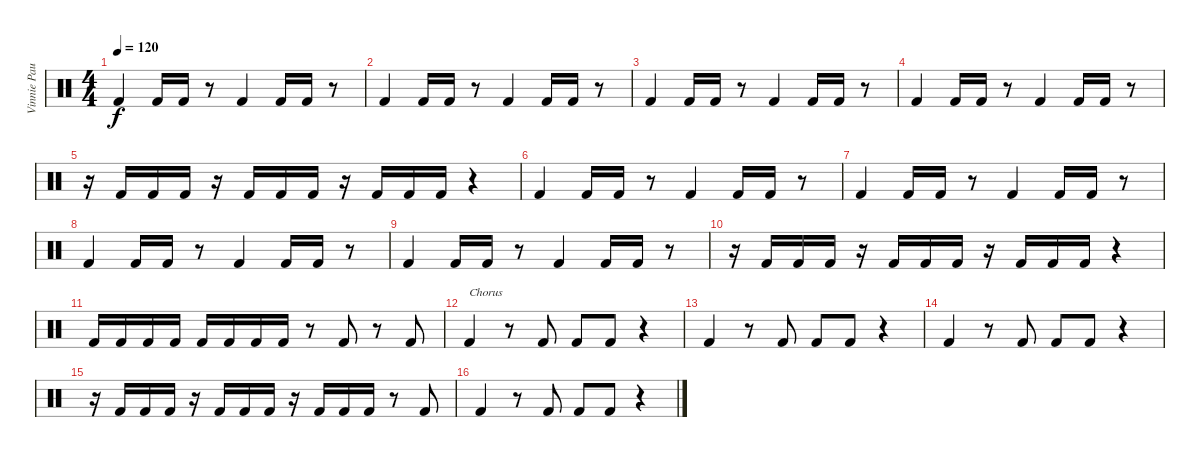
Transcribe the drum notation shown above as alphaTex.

\track ("Vinnie Paul bass drum" "Vinnie Pau") {instrument percussion}
\staff {score}
\articulation defaults
\ts (4 4)
\tempo 120
\clef neutral
\ks c "Kick (hit) 2".4{dy f} "Kick (hit) 2".16 "Kick (hit) 2".16
r.8 "Kick (hit) 2".4 "Kick (hit) 2".16 "Kick (hit) 2".16 r.8 |
"Kick (hit) 2".4 "Kick (hit) 2".16 "Kick (hit) 2".16 r.8 "Kick (hit) 2".4 "Kick (hit) 2".16 "Kick (hit) 2".16 r.8 |
"Kick (hit) 2".4 "Kick (hit) 2".16 "Kick (hit) 2".16 r.8 "Kick (hit) 2".4 "Kick (hit) 2".16 "Kick (hit) 2".16 r.8 |
"Kick (hit) 2".4 "Kick (hit) 2".16 "Kick (hit) 2".16 r.8 "Kick (hit) 2".4 "Kick (hit) 2".16 "Kick (hit) 2".16 r.8 |
r.16 "Kick (hit) 2".16 "Kick (hit) 2".16 "Kick (hit) 2".16 r.16 "Kick (hit) 2".16 "Kick (hit) 2".16 "Kick (hit) 2".16 r.16 "Kick (hit) 2".16 "Kick (hit) 2".16 "Kick (hit) 2".16 r.4 |
"Kick (hit) 2".4 "Kick (hit) 2".16 "Kick (hit) 2".16 r.8 "Kick (hit) 2".4 "Kick (hit) 2".16 "Kick (hit) 2".16 r.8 |
"Kick (hit) 2".4 "Kick (hit) 2".16 "Kick (hit) 2".16 r.8 "Kick (hit) 2".4 "Kick (hit) 2".16 "Kick (hit) 2".16 r.8 |
"Kick (hit) 2".4 "Kick (hit) 2".16 "Kick (hit) 2".16 r.8 "Kick (hit) 2".4 "Kick (hit) 2".16 "Kick (hit) 2".16 r.8 |
"Kick (hit) 2".4 "Kick (hit) 2".16 "Kick (hit) 2".16 r.8 "Kick (hit) 2".4 "Kick (hit) 2".16 "Kick (hit) 2".16 r.8 |
r.16 "Kick (hit) 2".16 "Kick (hit) 2".16 "Kick (hit) 2".16 r.16 "Kick (hit) 2".16 "Kick (hit) 2".16 "Kick (hit) 2".16 r.16 "Kick (hit) 2".16 "Kick (hit) 2".16 "Kick (hit) 2".16 r.4 |
"Kick (hit) 2".16 "Kick (hit) 2".16 "Kick (hit) 2".16 "Kick (hit) 2".16 "Kick (hit) 2".16 "Kick (hit) 2".16 "Kick (hit) 2".16 "Kick (hit) 2".16 r.8 "Kick (hit) 2".8 r.8 "Kick (hit) 2".8 |
"Kick (hit) 2".4{txt "Chorus"} r.8 "Kick (hit) 2".8 "Kick (hit) 2".8 "Kick (hit) 2".8 r.4 |
"Kick (hit) 2".4 r.8 "Kick (hit) 2".8 "Kick (hit) 2".8 "Kick (hit) 2".8 r.4 |
"Kick (hit) 2".4 r.8 "Kick (hit) 2".8 "Kick (hit) 2".8 "Kick (hit) 2".8 r.4 |
r.16 "Kick (hit) 2".16 "Kick (hit) 2".16 "Kick (hit) 2".16 r.16 "Kick (hit) 2".16 "Kick (hit) 2".16 "Kick (hit) 2".16 r.16 "Kick (hit) 2".16 "Kick (hit) 2".16 "Kick (hit) 2".16 r.8 "Kick (hit) 2".8 |
"Kick (hit) 2".4 r.8 "Kick (hit) 2".8 "Kick (hit) 2".8 "Kick (hit) 2".8 r.4
